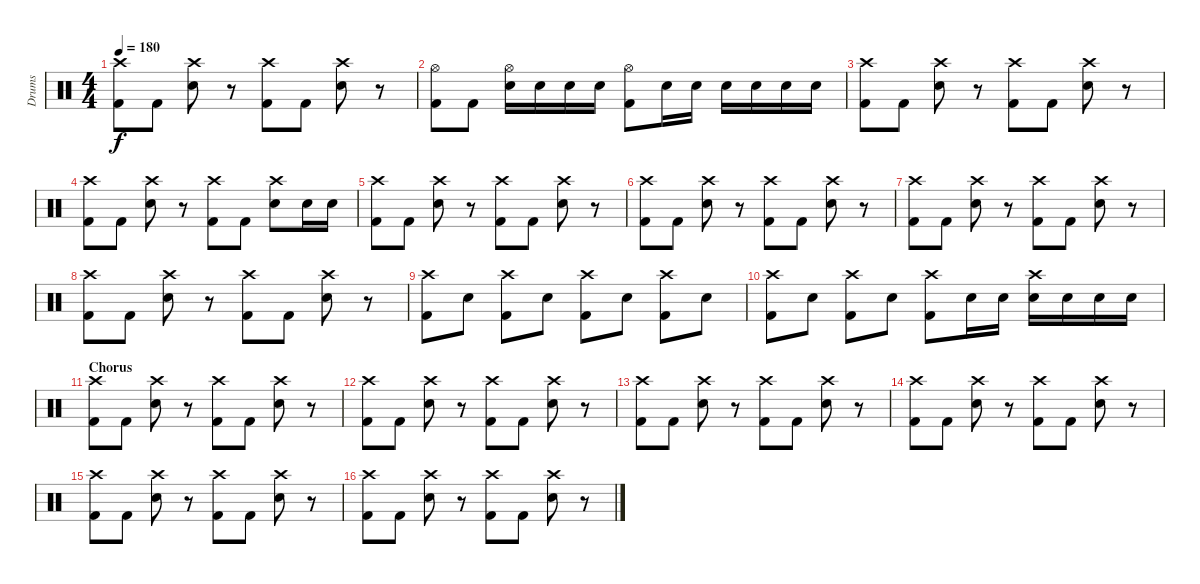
\track ("Drums" "Drums") {instrument percussion}
\staff {score}
\articulation defaults
\ts (4 4)
\tempo 180
\clef neutral
\ks c
("Crash high (hit)" "Kick (hit) 2").8{dy f} "Kick (hit) 2".8 ("Crash high (hit)" "Snare (hit) 2").8 r.8 ("Crash high (hit)" "Kick (hit) 2").8 "Kick (hit) 2".8 ("Crash high (hit)" "Snare (hit) 2").8 r.8 |
("Hi-Hat (open)" "Kick (hit) 2").8 "Kick (hit) 2".8 ("Hi-Hat (open)" "Snare (hit) 2").16 "Snare (hit) 2".16 "Snare (hit) 2".16 "Snare (hit) 2".16 ("Hi-Hat (open)" "Kick (hit) 2").8 "Snare (hit) 2".16 "Snare (hit) 2".16 "Snare (hit) 2".16 "Snare (hit) 2".16 "Snare (hit) 2".16 "Snare (hit) 2".16 |
("Crash high (hit)" "Kick (hit) 2").8 "Kick (hit) 2".8 ("Crash high (hit)" "Snare (hit) 2").8 r.8 ("Crash high (hit)" "Kick (hit) 2").8 "Kick (hit) 2".8 ("Crash high (hit)" "Snare (hit) 2").8 r.8 |
("Crash high (hit)" "Kick (hit) 2").8 "Kick (hit) 2".8 ("Crash high (hit)" "Snare (hit) 2").8 r.8 ("Crash high (hit)" "Kick (hit) 2").8 "Kick (hit) 2".8 ("Crash high (hit)" "Snare (hit) 2").8 "Snare (hit) 2".16 "Snare (hit) 2".16 |
("Crash high (hit)" "Kick (hit) 2").8 "Kick (hit) 2".8 ("Crash high (hit)" "Snare (hit) 2").8 r.8 ("Crash high (hit)" "Kick (hit) 2").8 "Kick (hit) 2".8 ("Crash high (hit)" "Snare (hit) 2").8 r.8 |
("Crash high (hit)" "Kick (hit) 2").8 "Kick (hit) 2".8 ("Crash high (hit)" "Snare (hit) 2").8 r.8 ("Crash high (hit)" "Kick (hit) 2").8 "Kick (hit) 2".8 ("Crash high (hit)" "Snare (hit) 2").8 r.8 |
("Crash high (hit)" "Kick (hit) 2").8 "Kick (hit) 2".8 ("Crash high (hit)" "Snare (hit) 2").8 r.8 ("Crash high (hit)" "Kick (hit) 2").8 "Kick (hit) 2".8 ("Crash high (hit)" "Snare (hit) 2").8 r.8 |
("Crash high (hit)" "Kick (hit) 2").8 "Kick (hit) 2".8 ("Crash high (hit)" "Snare (hit) 2").8 r.8 ("Crash high (hit)" "Kick (hit) 2").8 "Kick (hit) 2".8 ("Crash high (hit)" "Snare (hit) 2").8 r.8 |
("Crash high (hit)" "Kick (hit) 2").8 "Snare (hit) 2".8 ("Crash high (hit)" "Kick (hit) 2").8 "Snare (hit) 2".8 ("Crash high (hit)" "Kick (hit) 2").8 "Snare (hit) 2".8 ("Crash high (hit)" "Kick (hit) 2").8 "Snare (hit) 2".8 |
("Crash high (hit)" "Kick (hit) 2").8 "Snare (hit) 2".8 ("Crash high (hit)" "Kick (hit) 2").8 "Snare (hit) 2".8 ("Crash high (hit)" "Kick (hit) 2").8 "Snare (hit) 2".16 "Snare (hit) 2".16 ("Crash high (hit)" "Snare (hit) 2").16 "Snare (hit) 2".16 "Snare (hit) 2".16 "Snare (hit) 2".16 |
\section ("" "Chorus")
("Crash high (hit)" "Kick (hit) 2").8 "Kick (hit) 2".8 ("Crash high (hit)" "Snare (hit) 2").8 r.8 ("Crash high (hit)" "Kick (hit) 2").8 "Kick (hit) 2".8 ("Crash high (hit)" "Snare (hit) 2").8 r.8 |
("Crash high (hit)" "Kick (hit) 2").8 "Kick (hit) 2".8 ("Crash high (hit)" "Snare (hit) 2").8 r.8 ("Crash high (hit)" "Kick (hit) 2").8 "Kick (hit) 2".8 ("Crash high (hit)" "Snare (hit) 2").8 r.8 |
("Crash high (hit)" "Kick (hit) 2").8 "Kick (hit) 2".8 ("Crash high (hit)" "Snare (hit) 2").8 r.8 ("Crash high (hit)" "Kick (hit) 2").8 "Kick (hit) 2".8 ("Crash high (hit)" "Snare (hit) 2").8 r.8 |
("Crash high (hit)" "Kick (hit) 2").8 "Kick (hit) 2".8 ("Crash high (hit)" "Snare (hit) 2").8 r.8 ("Crash high (hit)" "Kick (hit) 2").8 "Kick (hit) 2".8 ("Crash high (hit)" "Snare (hit) 2").8 r.8 |
("Crash high (hit)" "Kick (hit) 2").8 "Kick (hit) 2".8 ("Crash high (hit)" "Snare (hit) 2").8 r.8 ("Crash high (hit)" "Kick (hit) 2").8 "Kick (hit) 2".8 ("Crash high (hit)" "Snare (hit) 2").8 r.8 |
("Crash high (hit)" "Kick (hit) 2").8 "Kick (hit) 2".8 ("Crash high (hit)" "Snare (hit) 2").8 r.8 ("Crash high (hit)" "Kick (hit) 2").8 "Kick (hit) 2".8 ("Crash high (hit)" "Snare (hit) 2").8 r.8
